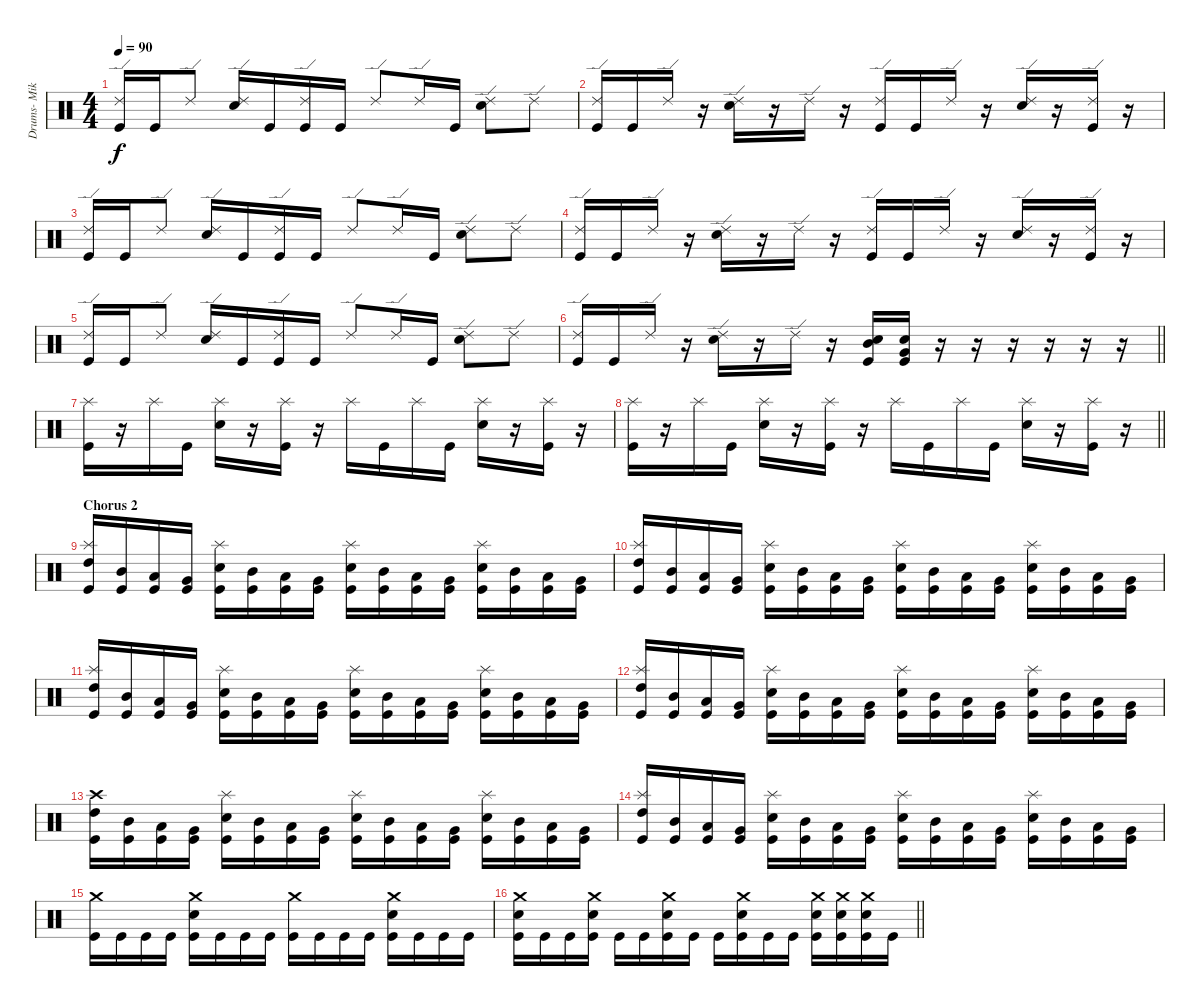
\track ("Drums- Mike Wengren" "Drums- Mik") {instrument percussion}
\staff {score}
\articulation defaults
\ts (4 4)
\tempo 90
\clef neutral
\ks c
("Ride (edge) 2" "Kick (hit)").16{dy f} "Kick (hit)".16 "Ride (edge) 2".8 ("Ride (edge) 2" "Electric Snare (hit)").16 "Kick (hit)".16 ("Ride (edge) 2" "Kick (hit)").16 "Kick (hit)".16 "Ride (edge) 2".8 "Ride (edge) 2".16 "Kick (hit)".16 ("Ride (edge) 2" "Electric Snare (hit)").8 "Ride (edge) 2".8 |
("Ride (edge) 2" "Kick (hit)").16 "Kick (hit)".16 "Ride (edge) 2".16 r.16 ("Ride (edge) 2" "Electric Snare (hit)").16 r.16 "Ride (edge) 2".16 r.16 ("Ride (edge) 2" "Kick (hit)").16 "Kick (hit)".16 "Ride (edge) 2".16 r.16 ("Ride (edge) 2" "Electric Snare (hit)").16 r.16 ("Ride (edge) 2" "Kick (hit)").16 r.16 |
("Ride (edge) 2" "Kick (hit)").16 "Kick (hit)".16 "Ride (edge) 2".8 ("Ride (edge) 2" "Electric Snare (hit)").16 "Kick (hit)".16 ("Ride (edge) 2" "Kick (hit)").16 "Kick (hit)".16 "Ride (edge) 2".8 "Ride (edge) 2".16 "Kick (hit)".16 ("Ride (edge) 2" "Electric Snare (hit)").8 "Ride (edge) 2".8 |
("Ride (edge) 2" "Kick (hit)").16 "Kick (hit)".16 "Ride (edge) 2".16 r.16 ("Ride (edge) 2" "Electric Snare (hit)").16 r.16 "Ride (edge) 2".16 r.16 ("Ride (edge) 2" "Kick (hit)").16 "Kick (hit)".16 "Ride (edge) 2".16 r.16 ("Ride (edge) 2" "Electric Snare (hit)").16 r.16 ("Ride (edge) 2" "Kick (hit)").16 r.16 |
("Ride (edge) 2" "Kick (hit)").16 "Kick (hit)".16 "Ride (edge) 2".8 ("Ride (edge) 2" "Electric Snare (hit)").16 "Kick (hit)".16 ("Ride (edge) 2" "Kick (hit)").16 "Kick (hit)".16 "Ride (edge) 2".8 "Ride (edge) 2".16 "Kick (hit)".16 ("Ride (edge) 2" "Electric Snare (hit)").8 "Ride (edge) 2".8 |
\barLineRight lightlight
("Ride (edge) 2" "Kick (hit)").16 "Kick (hit)".16 "Ride (edge) 2".16 r.16 ("Ride (edge) 2" "Electric Snare (hit)").16 r.16 "Ride (edge) 2".16 r.16 ("Mid Tom (hit)" "Electric Snare (hit)" "Kick (hit)").16 ("Very Low Tom (hit)" "Electric Snare (hit)" "Kick (hit)").16 r.16 r.16 r.16 r.16 r.16 r.16 |
("Splash (hit)" "Kick (hit)").16 r.16 "Splash (hit)".16 "Kick (hit)".16 ("Splash (hit)" "Electric Snare (hit)").16 r.16 ("Splash (hit)" "Kick (hit)").16 r.16 "Splash (hit)".16 "Kick (hit)".16 "Splash (hit)".16 "Kick (hit)".16 ("Splash (hit)" "Electric Snare (hit)").16 r.16 ("Splash (hit)" "Kick (hit)").16 r.16 |
\barLineRight lightlight
("Splash (hit)" "Kick (hit)").16 r.16 "Splash (hit)".16 "Kick (hit)".16 ("Splash (hit)" "Electric Snare (hit)").16 r.16 ("Splash (hit)" "Kick (hit)").16 r.16 "Splash (hit)".16 "Kick (hit)".16 "Splash (hit)".16 "Kick (hit)".16 ("Splash (hit)" "Electric Snare (hit)").16 r.16 ("Splash (hit)" "Kick (hit)").16 r.16 |
\section ("" "Chorus 2")
("Splash (hit)" "High Tom (hit)" "Kick (hit)").16 ("Mid Tom (hit)" "Kick (hit)").16 ("Low Tom (hit)" "Kick (hit)").16 ("Very Low Tom (hit)" "Kick (hit)").16 ("Splash (hit)" "Electric Snare (hit)" "Kick (hit)").16 ("Mid Tom (hit)" "Kick (hit)").16 ("Low Tom (hit)" "Kick (hit)").16 ("Very Low Tom (hit)" "Kick (hit)").16 ("Splash (hit)" "Electric Snare (hit)" "Kick (hit)").16 ("Mid Tom (hit)" "Kick (hit)").16 ("Low Tom (hit)" "Kick (hit)").16 ("Very Low Tom (hit)" "Kick (hit)").16 ("Splash (hit)" "Electric Snare (hit)" "Kick (hit)").16 ("Mid Tom (hit)" "Kick (hit)").16 ("Low Tom (hit)" "Kick (hit)").16 ("Very Low Tom (hit)" "Kick (hit)").16 |
("Splash (hit)" "High Tom (hit)" "Kick (hit)").16 ("Mid Tom (hit)" "Kick (hit)").16 ("Low Tom (hit)" "Kick (hit)").16 ("Very Low Tom (hit)" "Kick (hit)").16 ("Splash (hit)" "Electric Snare (hit)" "Kick (hit)").16 ("Mid Tom (hit)" "Kick (hit)").16 ("Low Tom (hit)" "Kick (hit)").16 ("Very Low Tom (hit)" "Kick (hit)").16 ("Splash (hit)" "Electric Snare (hit)" "Kick (hit)").16 ("Mid Tom (hit)" "Kick (hit)").16 ("Low Tom (hit)" "Kick (hit)").16 ("Very Low Tom (hit)" "Kick (hit)").16 ("Splash (hit)" "Electric Snare (hit)" "Kick (hit)").16 ("Mid Tom (hit)" "Kick (hit)").16 ("Low Tom (hit)" "Kick (hit)").16 ("Very Low Tom (hit)" "Kick (hit)").16 |
("Splash (hit)" "High Tom (hit)" "Kick (hit)").16 ("Mid Tom (hit)" "Kick (hit)").16 ("Low Tom (hit)" "Kick (hit)").16 ("Very Low Tom (hit)" "Kick (hit)").16 ("Splash (hit)" "Electric Snare (hit)" "Kick (hit)").16 ("Mid Tom (hit)" "Kick (hit)").16 ("Low Tom (hit)" "Kick (hit)").16 ("Very Low Tom (hit)" "Kick (hit)").16 ("Splash (hit)" "Electric Snare (hit)" "Kick (hit)").16 ("Mid Tom (hit)" "Kick (hit)").16 ("Low Tom (hit)" "Kick (hit)").16 ("Very Low Tom (hit)" "Kick (hit)").16 ("Splash (hit)" "Electric Snare (hit)" "Kick (hit)").16 ("Mid Tom (hit)" "Kick (hit)").16 ("Low Tom (hit)" "Kick (hit)").16 ("Very Low Tom (hit)" "Kick (hit)").16 |
("Splash (hit)" "High Tom (hit)" "Kick (hit)").16 ("Mid Tom (hit)" "Kick (hit)").16 ("Low Tom (hit)" "Kick (hit)").16 ("Very Low Tom (hit)" "Kick (hit)").16 ("Splash (hit)" "Electric Snare (hit)" "Kick (hit)").16 ("Mid Tom (hit)" "Kick (hit)").16 ("Low Tom (hit)" "Kick (hit)").16 ("Very Low Tom (hit)" "Kick (hit)").16 ("Splash (hit)" "Electric Snare (hit)" "Kick (hit)").16 ("Mid Tom (hit)" "Kick (hit)").16 ("Low Tom (hit)" "Kick (hit)").16 ("Very Low Tom (hit)" "Kick (hit)").16 ("Splash (hit)" "Electric Snare (hit)" "Kick (hit)").16 ("Mid Tom (hit)" "Kick (hit)").16 ("Low Tom (hit)" "Kick (hit)").16 ("Very Low Tom (hit)" "Kick (hit)").16 |
("Crash high (hit)" "High Tom (hit)" "Kick (hit)").16 ("Mid Tom (hit)" "Kick (hit)").16 ("Low Tom (hit)" "Kick (hit)").16 ("Very Low Tom (hit)" "Kick (hit)").16 ("Splash (hit)" "Electric Snare (hit)" "Kick (hit)").16 ("Mid Tom (hit)" "Kick (hit)").16 ("Low Tom (hit)" "Kick (hit)").16 ("Very Low Tom (hit)" "Kick (hit)").16 ("Splash (hit)" "Electric Snare (hit)" "Kick (hit)").16 ("Mid Tom (hit)" "Kick (hit)").16 ("Low Tom (hit)" "Kick (hit)").16 ("Very Low Tom (hit)" "Kick (hit)").16 ("Splash (hit)" "Electric Snare (hit)" "Kick (hit)").16 ("Mid Tom (hit)" "Kick (hit)").16 ("Low Tom (hit)" "Kick (hit)").16 ("Very Low Tom (hit)" "Kick (hit)").16 |
("Splash (hit)" "High Tom (hit)" "Kick (hit)").16 ("Mid Tom (hit)" "Kick (hit)").16 ("Low Tom (hit)" "Kick (hit)").16 ("Very Low Tom (hit)" "Kick (hit)").16 ("Splash (hit)" "Electric Snare (hit)" "Kick (hit)").16 ("Mid Tom (hit)" "Kick (hit)").16 ("Low Tom (hit)" "Kick (hit)").16 ("Very Low Tom (hit)" "Kick (hit)").16 ("Splash (hit)" "Electric Snare (hit)" "Kick (hit)").16 ("Mid Tom (hit)" "Kick (hit)").16 ("Low Tom (hit)" "Kick (hit)").16 ("Very Low Tom (hit)" "Kick (hit)").16 ("Splash (hit)" "Electric Snare (hit)" "Kick (hit)").16 ("Mid Tom (hit)" "Kick (hit)").16 ("Low Tom (hit)" "Kick (hit)").16 ("Very Low Tom (hit)" "Kick (hit)").16 |
("Crash medium (hit)" "Kick (hit)").16 "Kick (hit)".16 "Kick (hit)".16 "Kick (hit)".16 ("Crash medium (hit)" "Electric Snare (hit)" "Kick (hit)").16 "Kick (hit)".16 "Kick (hit)".16 "Kick (hit)".16 ("Crash medium (hit)" "Kick (hit)").16 "Kick (hit)".16 "Kick (hit)".16 "Kick (hit)".16 ("Crash medium (hit)" "Electric Snare (hit)" "Kick (hit)").16 "Kick (hit)".16 "Kick (hit)".16 "Kick (hit)".16 |
\barLineRight lightlight
("Crash medium (hit)" "Electric Snare (hit)" "Kick (hit)").16 "Kick (hit)".16 "Kick (hit)".16 ("Crash medium (hit)" "Electric Snare (hit)" "Kick (hit)").16 "Kick (hit)".16 "Kick (hit)".16 ("Crash medium (hit)" "Electric Snare (hit)" "Kick (hit)").16 "Kick (hit)".16 "Kick (hit)".16 ("Crash medium (hit)" "Electric Snare (hit)" "Kick (hit)").16 "Kick (hit)".16 "Kick (hit)".16 ("Crash medium (hit)" "Electric Snare (hit)" "Kick (hit)").16 ("Crash medium (hit)" "Electric Snare (hit)" "Kick (hit)").16 ("Crash medium (hit)" "Electric Snare (hit)" "Kick (hit)").16 "Kick (hit)".16
